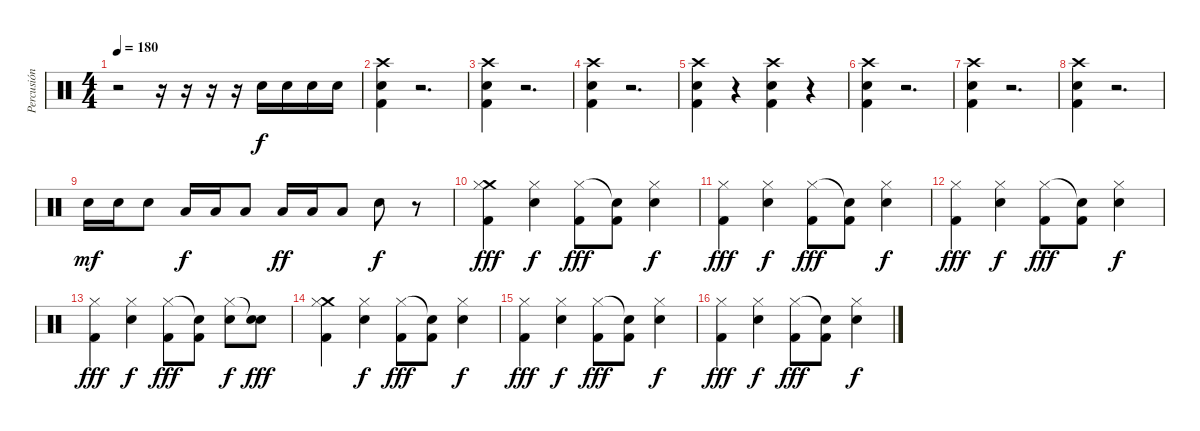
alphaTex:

\track ("Percusión" "Percusión") {instrument percussion}
\staff {score}
\articulation defaults
\ts (4 4)
\tempo 180
\clef neutral
\ks c
r.2{dy f volume 16} r.16 r.16 r.16 r.16 "Snare (hit) 2".16 "Snare (hit) 2".16 "Snare (hit) 2".16 "Snare (hit) 2".16 |
("Kick (hit) 2" "Snare (hit) 2" "Crash high (hit)").4 r.2{d} |
("Kick (hit) 2" "Snare (hit) 2" "Crash high (hit)").4 r.2{d} |
("Kick (hit) 2" "Snare (hit) 2" "Crash high (hit)").4 r.2{d} |
("Kick (hit) 2" "Snare (hit) 2" "Crash high (hit)").4 r.4 ("Kick (hit) 2" "Snare (hit) 2" "Crash high (hit)").4 r.4 |
("Kick (hit) 2" "Snare (hit) 2" "Crash high (hit)").4 r.2{d} |
("Kick (hit) 2" "Snare (hit) 2" "Crash high (hit)").4 r.2{d} |
("Kick (hit) 2" "Snare (hit) 2" "Crash high (hit)").4 r.2{d} |
"Snare (hit) 2".16{dy mf} "Snare (hit) 2".16 "Snare (hit) 2".8 "Low Tom (hit)".16{dy f} "Low Tom (hit)".16 "Low Tom (hit)".8 "Low Floor Tom (hit)".16{dy ff} "Low Floor Tom (hit)".16 "Low Floor Tom (hit)".8 "Snare (hit) 2".8{dy f} r.8 |
("Crash medium (hit)" "Hi-Hat (closed)" "Kick (hit) 2").4{dy fff} ("Snare (hit) 2" "Hi-Hat (closed)").4{dy f} ("Hi-Hat (closed)" "Kick (hit) 2").8{dy fff} ("Snare (hit)"{t} "Kick (hit) 2").8 ("Snare (hit) 2" "Hi-Hat (closed)").4{dy f} |
("Hi-Hat (closed)" "Kick (hit) 2").4{dy fff} ("Snare (hit) 2" "Hi-Hat (closed)").4{dy f} ("Hi-Hat (closed)" "Kick (hit) 2").8{dy fff} ("Snare (hit)"{t} "Kick (hit) 2").8 ("Snare (hit) 2" "Hi-Hat (closed)").4{dy f} |
("Hi-Hat (closed)" "Kick (hit) 2").4{dy fff} ("Snare (hit) 2" "Hi-Hat (closed)").4{dy f} ("Hi-Hat (closed)" "Kick (hit) 2").8{dy fff} ("Snare (hit)"{t} "Kick (hit) 2").8 ("Snare (hit) 2" "Hi-Hat (closed)").4{dy f} |
("Hi-Hat (closed)" "Kick (hit) 2").4{dy fff} ("Snare (hit) 2" "Hi-Hat (closed)").4{dy f} ("Hi-Hat (closed)" "Kick (hit) 2").8{dy fff} ("Snare (hit)"{t} "Kick (hit) 2").8 ("Snare (hit) 2" "Hi-Hat (closed)").8{dy f} ("Snare (hit) 2" "Snare (hit)"{t}).8{dy fff} |
("Crash medium (hit)" "Hi-Hat (closed)" "Kick (hit) 2").4 ("Snare (hit) 2" "Hi-Hat (closed)").4{dy f} ("Hi-Hat (closed)" "Kick (hit) 2").8{dy fff} ("Snare (hit)"{t} "Kick (hit) 2").8 ("Snare (hit) 2" "Hi-Hat (closed)").4{dy f} |
("Hi-Hat (closed)" "Kick (hit) 2").4{dy fff} ("Snare (hit) 2" "Hi-Hat (closed)").4{dy f} ("Hi-Hat (closed)" "Kick (hit) 2").8{dy fff} ("Snare (hit)"{t} "Kick (hit) 2").8 ("Snare (hit) 2" "Hi-Hat (closed)").4{dy f} |
("Hi-Hat (closed)" "Kick (hit) 2").4{dy fff} ("Snare (hit) 2" "Hi-Hat (closed)").4{dy f} ("Hi-Hat (closed)" "Kick (hit) 2").8{dy fff} ("Snare (hit)"{t} "Kick (hit) 2").8 ("Snare (hit) 2" "Hi-Hat (closed)").4{dy f}
